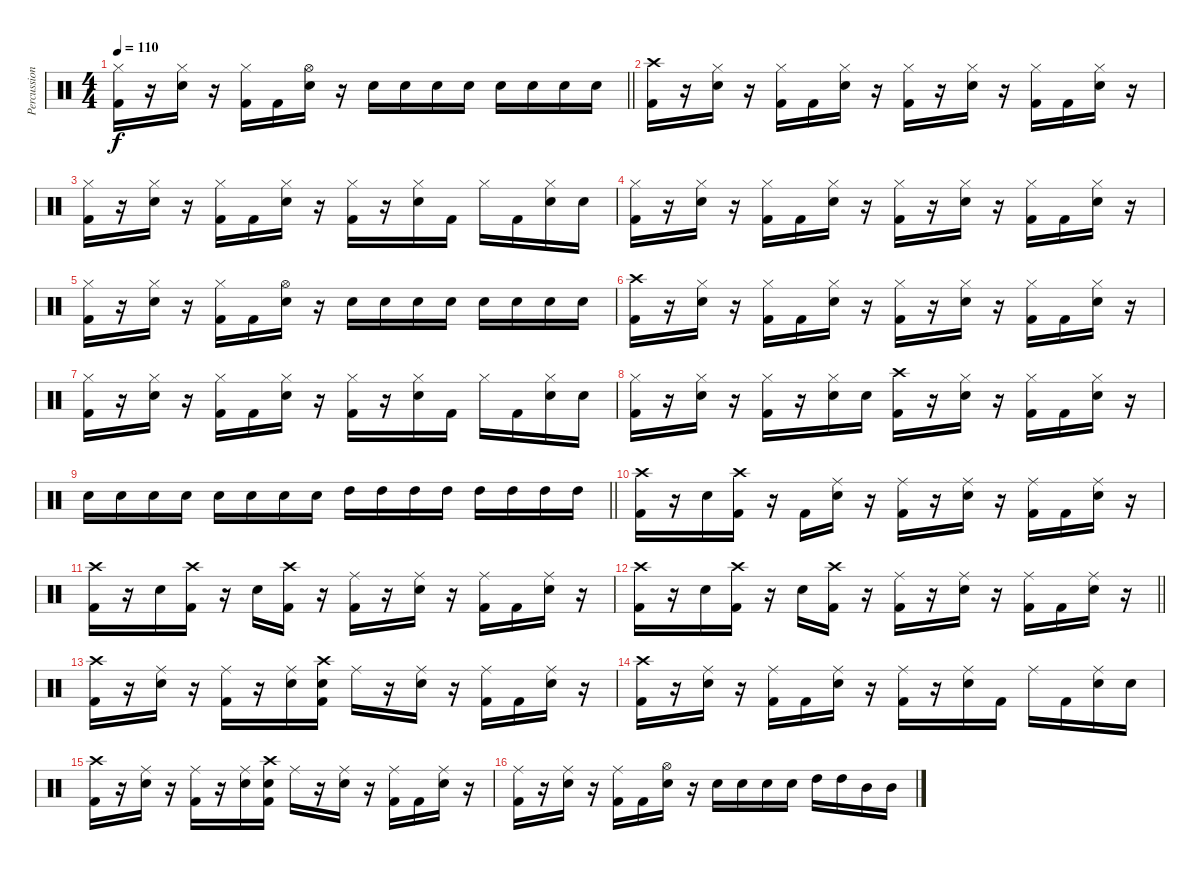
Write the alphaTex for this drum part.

\track ("Percussion" "Percussion") {instrument percussion}
\staff {score}
\articulation defaults
\ts (4 4)
\tempo 110
\clef neutral
\barLineRight lightlight
\ks c
("Hi-Hat (closed)" "Kick (hit) 2").16{dy f} r.16 ("Hi-Hat (closed)" "Electric Snare (hit)").16 r.16 ("Hi-Hat (closed)" "Kick (hit) 2").16 "Kick (hit) 2".16 ("Hi-Hat (open)" "Electric Snare (hit)").16 r.16 "Electric Snare (hit)".16 "Electric Snare (hit)".16 "Electric Snare (hit)".16 "Electric Snare (hit)".16 "Electric Snare (hit)".16 "Electric Snare (hit)".16 "Electric Snare (hit)".16 "Electric Snare (hit)".16 |
("Crash high (hit)" "Kick (hit) 2").16 r.16 ("Hi-Hat (closed)" "Electric Snare (hit)").16 r.16 ("Hi-Hat (closed)" "Kick (hit) 2").16 "Kick (hit) 2".16 ("Hi-Hat (closed)" "Electric Snare (hit)").16 r.16 ("Hi-Hat (closed)" "Kick (hit) 2").16 r.16 ("Hi-Hat (closed)" "Electric Snare (hit)").16 r.16 ("Hi-Hat (closed)" "Kick (hit) 2").16 "Kick (hit) 2".16 ("Hi-Hat (closed)" "Electric Snare (hit)").16 r.16 |
("Hi-Hat (closed)" "Kick (hit) 2").16 r.16 ("Hi-Hat (closed)" "Electric Snare (hit)").16 r.16 ("Hi-Hat (closed)" "Kick (hit) 2").16 "Kick (hit) 2".16 ("Hi-Hat (closed)" "Electric Snare (hit)").16 r.16 ("Hi-Hat (closed)" "Kick (hit) 2").16 r.16 ("Hi-Hat (closed)" "Electric Snare (hit)").16 "Kick (hit) 2".16 "Hi-Hat (closed)".16 "Kick (hit) 2".16 ("Hi-Hat (closed)" "Electric Snare (hit)").16 "Electric Snare (hit)".16 |
("Hi-Hat (closed)" "Kick (hit) 2").16 r.16 ("Hi-Hat (closed)" "Electric Snare (hit)").16 r.16 ("Hi-Hat (closed)" "Kick (hit) 2").16 "Kick (hit) 2".16 ("Hi-Hat (closed)" "Electric Snare (hit)").16 r.16 ("Hi-Hat (closed)" "Kick (hit) 2").16 r.16 ("Hi-Hat (closed)" "Electric Snare (hit)").16 r.16 ("Hi-Hat (closed)" "Kick (hit) 2").16 "Kick (hit) 2".16 ("Hi-Hat (closed)" "Electric Snare (hit)").16 r.16 |
("Hi-Hat (closed)" "Kick (hit) 2").16 r.16 ("Hi-Hat (closed)" "Electric Snare (hit)").16 r.16 ("Hi-Hat (closed)" "Kick (hit) 2").16 "Kick (hit) 2".16 ("Hi-Hat (open)" "Electric Snare (hit)").16 r.16 "Electric Snare (hit)".16 "Electric Snare (hit)".16 "Electric Snare (hit)".16 "Electric Snare (hit)".16 "Electric Snare (hit)".16 "Electric Snare (hit)".16 "Electric Snare (hit)".16 "Electric Snare (hit)".16 |
("Crash high (hit)" "Kick (hit) 2").16 r.16 ("Hi-Hat (closed)" "Electric Snare (hit)").16 r.16 ("Hi-Hat (closed)" "Kick (hit) 2").16 "Kick (hit) 2".16 ("Hi-Hat (closed)" "Electric Snare (hit)").16 r.16 ("Hi-Hat (closed)" "Kick (hit) 2").16 r.16 ("Hi-Hat (closed)" "Electric Snare (hit)").16 r.16 ("Hi-Hat (closed)" "Kick (hit) 2").16 "Kick (hit) 2".16 ("Hi-Hat (closed)" "Electric Snare (hit)").16 r.16 |
("Hi-Hat (closed)" "Kick (hit) 2").16 r.16 ("Hi-Hat (closed)" "Electric Snare (hit)").16 r.16 ("Hi-Hat (closed)" "Kick (hit) 2").16 "Kick (hit) 2".16 ("Hi-Hat (closed)" "Electric Snare (hit)").16 r.16 ("Hi-Hat (closed)" "Kick (hit) 2").16 r.16 ("Hi-Hat (closed)" "Electric Snare (hit)").16 "Kick (hit) 2".16 "Hi-Hat (closed)".16 "Kick (hit) 2".16 ("Hi-Hat (closed)" "Electric Snare (hit)").16 "Electric Snare (hit)".16 |
("Hi-Hat (closed)" "Kick (hit) 2").16 r.16 ("Hi-Hat (closed)" "Electric Snare (hit)").16 r.16 ("Hi-Hat (closed)" "Kick (hit) 2").16 r.16 ("Hi-Hat (closed)" "Electric Snare (hit)").16 "Electric Snare (hit)".16 ("Crash high (hit)" "Kick (hit) 2").16 r.16 ("Hi-Hat (closed)" "Electric Snare (hit)").16 r.16 ("Hi-Hat (closed)" "Kick (hit) 2").16 "Kick (hit) 2".16 ("Hi-Hat (closed)" "Electric Snare (hit)").16 r.16 |
\barLineRight lightlight "Electric Snare (hit)".16 "Electric Snare (hit)".16 "Electric Snare (hit)".16 "Electric Snare (hit)".16 "Electric Snare (hit)".16 "Electric Snare (hit)".16 "Electric Snare (hit)".16 "Electric Snare (hit)".16 "High Tom (hit)".16 "High Tom (hit)".16 "High Tom (hit)".16 "High Tom (hit)".16 "High Tom (hit)".16 "High Tom (hit)".16 "High Tom (hit)".16 "High Tom (hit)".16
|
("Crash high (hit)" "Kick (hit) 2").16 r.16 "Electric Snare (hit)".16 ("Crash high (hit)" "Kick (hit) 2").16 r.16 "Kick (hit) 2".16 ("Ride (middle)" "Electric Snare (hit)").16 r.16 ("Ride (middle)" "Kick (hit) 2").16 r.16 ("Ride (middle)" "Electric Snare (hit)").16 r.16 ("Ride (middle)" "Kick (hit) 2").16 "Kick (hit) 2".16 ("Ride (middle)" "Electric Snare (hit)").16 r.16 |
("Crash high (hit)" "Kick (hit) 2").16 r.16 "Electric Snare (hit)".16 ("Crash high (hit)" "Kick (hit) 2").16 r.16 "Electric Snare (hit)".16 ("Crash high (hit)" "Kick (hit) 2").16 r.16 ("Ride (middle)" "Kick (hit) 2").16 r.16 ("Ride (middle)" "Electric Snare (hit)").16 r.16 ("Ride (middle)" "Kick (hit) 2").16 "Kick (hit) 2".16 ("Ride (middle)" "Electric Snare (hit)").16 r.16 |
\barLineRight lightlight
("Crash high (hit)" "Kick (hit) 2").16 r.16 "Electric Snare (hit)".16 ("Crash high (hit)" "Kick (hit) 2").16 r.16 "Electric Snare (hit)".16 ("Crash high (hit)" "Kick (hit) 2").16 r.16 ("Ride (middle)" "Kick (hit) 2").16 r.16 ("Ride (middle)" "Electric Snare (hit)").16 r.16 ("Ride (middle)" "Kick (hit) 2").16 "Kick (hit) 2".16 ("Ride (middle)" "Electric Snare (hit)").16 r.16 |
("Crash high (hit)" "Kick (hit) 2").16 r.16 ("Ride (middle)" "Electric Snare (hit)").16 r.16 ("Ride (middle)" "Kick (hit) 2").16 r.16 ("Ride (middle)" "Electric Snare (hit)").16 ("Crash high (hit)" "Kick (hit) 2" "Electric Snare (hit)").16 "Ride (middle)".16 r.16 ("Ride (middle)" "Electric Snare (hit)").16 r.16 ("Ride (middle)" "Kick (hit) 2").16 "Kick (hit) 2".16 ("Ride (middle)" "Electric Snare (hit)").16 r.16 |
("Crash high (hit)" "Kick (hit) 2").16 r.16 ("Ride (middle)" "Electric Snare (hit)").16 r.16 ("Ride (middle)" "Kick (hit) 2").16 "Kick (hit) 2".16 ("Ride (middle)" "Electric Snare (hit)").16 r.16 ("Ride (middle)" "Kick (hit) 2").16 r.16 ("Ride (middle)" "Electric Snare (hit)").16 "Kick (hit) 2".16 "Ride (middle)".16 "Kick (hit) 2".16 ("Ride (middle)" "Electric Snare (hit)").16 "Electric Snare (hit)".16 |
("Crash high (hit)" "Kick (hit) 2").16 r.16 ("Ride (middle)" "Electric Snare (hit)").16 r.16 ("Ride (middle)" "Kick (hit) 2").16 r.16 ("Ride (middle)" "Electric Snare (hit)").16 ("Crash high (hit)" "Kick (hit) 2" "Electric Snare (hit)").16 "Ride (middle)".16 r.16 ("Ride (middle)" "Electric Snare (hit)").16 r.16 ("Ride (middle)" "Kick (hit) 2").16 "Kick (hit) 2".16 ("Ride (middle)" "Electric Snare (hit)").16 r.16 |
("Ride (middle)" "Kick (hit) 2").16 r.16 ("Ride (middle)" "Electric Snare (hit)").16 r.16 ("Ride (middle)" "Kick (hit) 2").16 "Kick (hit) 2".16 ("Hi-Hat (open)" "Electric Snare (hit)").16 r.16 "Electric Snare (hit)".16 "Electric Snare (hit)".16 "Electric Snare (hit)".16 "Electric Snare (hit)".16 "High Tom (hit)".16 "High Tom (hit)".16 "Mid Tom (hit)".16 "Mid Tom (hit)".16
